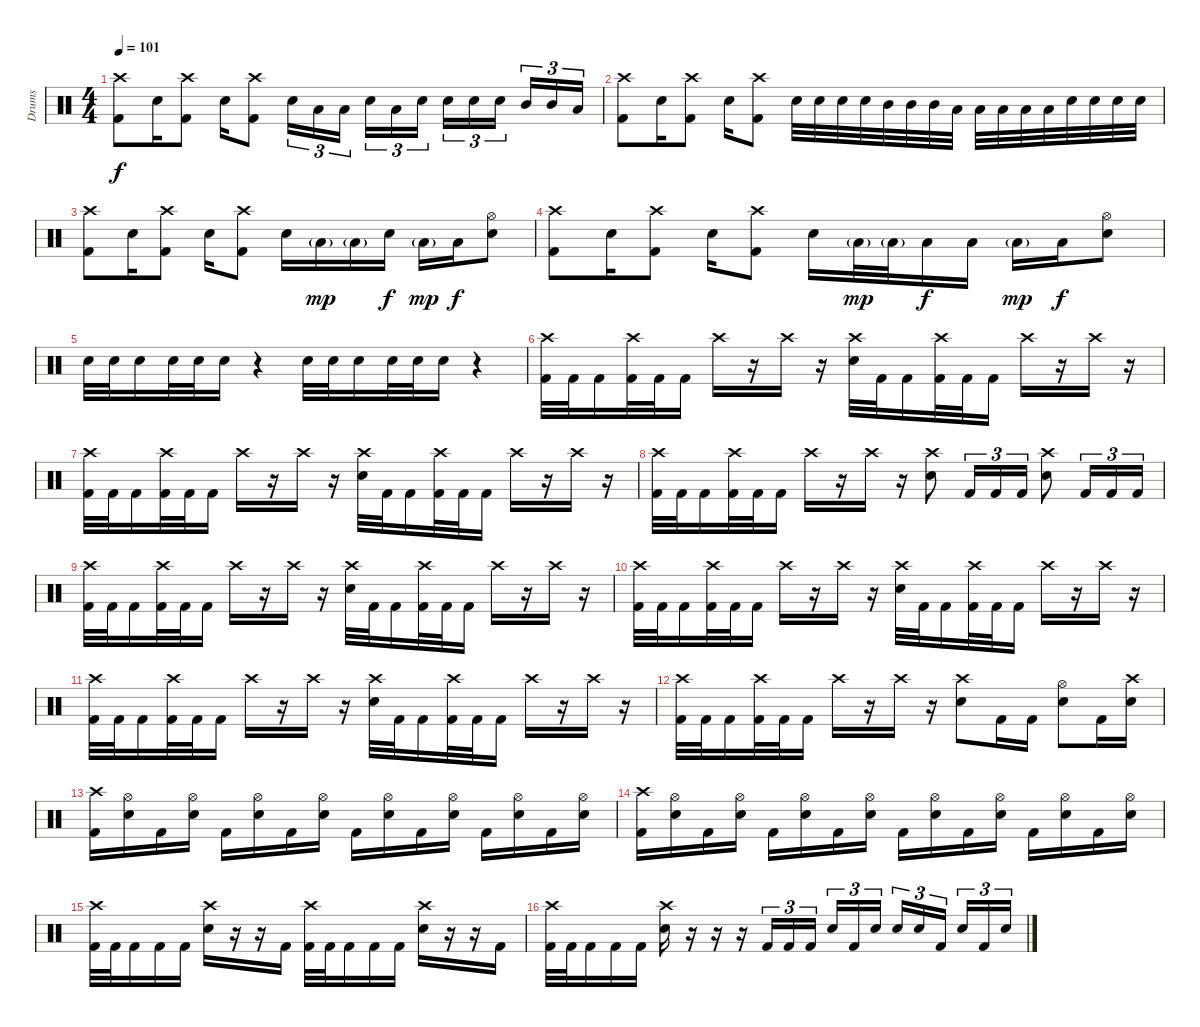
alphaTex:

\track ("Drums" "Drums") {instrument percussion}
\staff {score}
\articulation defaults
\ts (4 4)
\tempo 101
\clef neutral
\ks c
("Crash high (hit)" "Kick (hit) 2").8{dy f} "Electric Snare (hit)".16 ("Crash high (hit)" "Kick (hit) 2").8 "Electric Snare (hit)".16 ("Crash high (hit)" "Kick (hit) 2").8 "Electric Snare (hit)".16{tu (3 2)} "Low Tom (hit)".16{tu (3 2)} "Low Tom (hit)".16{tu (3 2) beam splitsecondary} "Electric Snare (hit)".16{tu (3 2)} "Low Tom (hit)".16{tu (3 2)} "Electric Snare (hit)".16{tu (3 2)} "Electric Snare (hit)".16{tu (3 2)} "Electric Snare (hit)".16{tu (3 2)} "Electric Snare (hit)".16{tu (3 2) beam splitsecondary} "Mid Tom (hit)".16{tu (3 2)} "Mid Tom (hit)".16{tu (3 2)} "Low Tom (hit)".16{tu (3 2)} |
("Crash high (hit)" "Kick (hit) 2").8 "Electric Snare (hit)".16 ("Crash high (hit)" "Kick (hit) 2").8 "Electric Snare (hit)".16 ("Crash high (hit)" "Kick (hit) 2").8 "Electric Snare (hit)".32 "Electric Snare (hit)".32 "Electric Snare (hit)".32 "Electric Snare (hit)".32 "Mid Tom (hit)".32 "Mid Tom (hit)".32 "Mid Tom (hit)".32 "Low Tom (hit)".32 "Low Tom (hit)".32 "Low Tom (hit)".32 "Low Tom (hit)".32 "Low Tom (hit)".32 "Electric Snare (hit)".32 "Electric Snare (hit)".32 "Electric Snare (hit)".32 "Electric Snare (hit)".32 |
("Crash high (hit)" "Kick (hit) 2").8 "Electric Snare (hit)".16 ("Crash high (hit)" "Kick (hit) 2").8 "Electric Snare (hit)".16 ("Crash high (hit)" "Kick (hit) 2").8 "Electric Snare (hit)".16 "Low Tom (hit)"{g}.16{dy mp} "Low Tom (hit)"{g}.16 "Electric Snare (hit)".16{dy f} "Low Tom (hit)"{g}.16{dy mp} "Low Tom (hit)".16{dy f} ("Hi-Hat (open)" "Electric Snare (hit)").8 |
("Crash high (hit)" "Kick (hit) 2").8 "Electric Snare (hit)".16 ("Crash high (hit)" "Kick (hit) 2").8 "Electric Snare (hit)".16 ("Crash high (hit)" "Kick (hit) 2").8 "Electric Snare (hit)".16 "Low Tom (hit)"{g}.32{dy mp} "Low Tom (hit)"{g}.32 "Low Tom (hit)".16{dy f} "Low Tom (hit)".16 "Low Tom (hit)"{g}.16{dy mp} "Low Tom (hit)".16{dy f} ("Hi-Hat (open)" "Electric Snare (hit)").8 |
"Electric Snare (hit)".32 "Electric Snare (hit)".32 "Electric Snare (hit)".16 "Electric Snare (hit)".32 "Electric Snare (hit)".32 "Electric Snare (hit)".16 r.4 "Electric Snare (hit)".32 "Electric Snare (hit)".32 "Electric Snare (hit)".16 "Electric Snare (hit)".32 "Electric Snare (hit)".32 "Electric Snare (hit)".16 r.4 |
("Crash high (hit)" "Kick (hit) 2").32 "Kick (hit) 2".32 "Kick (hit) 2".16 ("Crash high (hit)" "Kick (hit) 2").32 "Kick (hit) 2".32 "Kick (hit) 2".16 "Crash high (hit)".16 r.16 "Crash high (hit)".16 r.16 ("Crash high (hit)" "Electric Snare (hit)").32 "Kick (hit) 2".32 "Kick (hit) 2".16 ("Crash high (hit)" "Kick (hit) 2").32 "Kick (hit) 2".32 "Kick (hit) 2".16 "Crash high (hit)".16 r.16 "Crash high (hit)".16 r.16 |
("Crash high (hit)" "Kick (hit) 2").32 "Kick (hit) 2".32 "Kick (hit) 2".16 ("Crash high (hit)" "Kick (hit) 2").32 "Kick (hit) 2".32 "Kick (hit) 2".16 "Crash high (hit)".16 r.16 "Crash high (hit)".16 r.16 ("Crash high (hit)" "Electric Snare (hit)").32 "Kick (hit) 2".32 "Kick (hit) 2".16 ("Crash high (hit)" "Kick (hit) 2").32 "Kick (hit) 2".32 "Kick (hit) 2".16 "Crash high (hit)".16 r.16 "Crash high (hit)".16 r.16 |
("Crash high (hit)" "Kick (hit) 2").32 "Kick (hit) 2".32 "Kick (hit) 2".16 ("Crash high (hit)" "Kick (hit) 2").32 "Kick (hit) 2".32 "Kick (hit) 2".16 "Crash high (hit)".16 r.16 "Crash high (hit)".16 r.16 ("Crash high (hit)" "Electric Snare (hit)").8 "Kick (hit) 2".16{tu (3 2)} "Kick (hit) 2".16{tu (3 2)} "Kick (hit) 2".16{tu (3 2)} ("Crash high (hit)" "Electric Snare (hit)").8 "Kick (hit) 2".16{tu (3 2)} "Kick (hit) 2".16{tu (3 2)} "Kick (hit) 2".16{tu (3 2)} |
("Crash high (hit)" "Kick (hit) 2").32 "Kick (hit) 2".32 "Kick (hit) 2".16 ("Crash high (hit)" "Kick (hit) 2").32 "Kick (hit) 2".32 "Kick (hit) 2".16 "Crash high (hit)".16 r.16 "Crash high (hit)".16 r.16 ("Crash high (hit)" "Electric Snare (hit)").32 "Kick (hit) 2".32 "Kick (hit) 2".16 ("Crash high (hit)" "Kick (hit) 2").32 "Kick (hit) 2".32 "Kick (hit) 2".16 "Crash high (hit)".16 r.16 "Crash high (hit)".16 r.16 |
("Crash high (hit)" "Kick (hit) 2").32 "Kick (hit) 2".32 "Kick (hit) 2".16 ("Crash high (hit)" "Kick (hit) 2").32 "Kick (hit) 2".32 "Kick (hit) 2".16 "Crash high (hit)".16 r.16 "Crash high (hit)".16 r.16 ("Crash high (hit)" "Electric Snare (hit)").32 "Kick (hit) 2".32 "Kick (hit) 2".16 ("Crash high (hit)" "Kick (hit) 2").32 "Kick (hit) 2".32 "Kick (hit) 2".16 "Crash high (hit)".16 r.16 "Crash high (hit)".16 r.16 |
("Crash high (hit)" "Kick (hit) 2").32 "Kick (hit) 2".32 "Kick (hit) 2".16 ("Crash high (hit)" "Kick (hit) 2").32 "Kick (hit) 2".32 "Kick (hit) 2".16 "Crash high (hit)".16 r.16 "Crash high (hit)".16 r.16 ("Crash high (hit)" "Electric Snare (hit)").32 "Kick (hit) 2".32 "Kick (hit) 2".16 ("Crash high (hit)" "Kick (hit) 2").32 "Kick (hit) 2".32 "Kick (hit) 2".16 "Crash high (hit)".16 r.16 "Crash high (hit)".16 r.16 |
("Crash high (hit)" "Kick (hit) 2").32 "Kick (hit) 2".32 "Kick (hit) 2".16 ("Crash high (hit)" "Kick (hit) 2").32 "Kick (hit) 2".32 "Kick (hit) 2".16 "Crash high (hit)".16 r.16 "Crash high (hit)".16 r.16 ("Crash high (hit)" "Electric Snare (hit)").8 "Kick (hit) 2".16 "Kick (hit) 2".16 ("Hi-Hat (open)" "Electric Snare (hit)").8 "Kick (hit) 2".16 ("Crash high (hit)" "Electric Snare (hit)").16 |
("Crash high (hit)" "Kick (hit) 2").16 ("Hi-Hat (open)" "Electric Snare (hit)").16 "Kick (hit) 2".16 ("Hi-Hat (open)" "Electric Snare (hit)").16 "Kick (hit) 2".16 ("Hi-Hat (open)" "Electric Snare (hit)").16 "Kick (hit) 2".16 ("Hi-Hat (open)" "Electric Snare (hit)").16 "Kick (hit) 2".16 ("Hi-Hat (open)" "Electric Snare (hit)").16 "Kick (hit) 2".16 ("Hi-Hat (open)" "Electric Snare (hit)").16 "Kick (hit) 2".16 ("Hi-Hat (open)" "Electric Snare (hit)").16 "Kick (hit) 2".16 ("Hi-Hat (open)" "Electric Snare (hit)").16 |
("Crash high (hit)" "Kick (hit) 2").16 ("Hi-Hat (open)" "Electric Snare (hit)").16 "Kick (hit) 2".16 ("Hi-Hat (open)" "Electric Snare (hit)").16 "Kick (hit) 2".16 ("Hi-Hat (open)" "Electric Snare (hit)").16 "Kick (hit) 2".16 ("Hi-Hat (open)" "Electric Snare (hit)").16 "Kick (hit) 2".16 ("Hi-Hat (open)" "Electric Snare (hit)").16 "Kick (hit) 2".16 ("Hi-Hat (open)" "Electric Snare (hit)").16 "Kick (hit) 2".16 ("Hi-Hat (open)" "Electric Snare (hit)").16 "Kick (hit) 2".16 ("Hi-Hat (open)" "Electric Snare (hit)").16 |
("Crash high (hit)" "Kick (hit) 2").32 "Kick (hit) 2".32 "Kick (hit) 2".16 "Kick (hit) 2".16 "Kick (hit) 2".16 ("Crash high (hit)" "Electric Snare (hit)").16 r.16 r.16 "Kick (hit) 2".16 ("Crash high (hit)" "Kick (hit) 2").32 "Kick (hit) 2".32 "Kick (hit) 2".16 "Kick (hit) 2".16 "Kick (hit) 2".16 ("Crash high (hit)" "Electric Snare (hit)").16 r.16 r.16 "Kick (hit) 2".16 |
("Crash high (hit)" "Kick (hit) 2").32 "Kick (hit) 2".32 "Kick (hit) 2".16 "Kick (hit) 2".16 "Kick (hit) 2".16 ("Crash high (hit)" "Electric Snare (hit)").16 r.16 r.16 r.16 "Kick (hit) 2".16{tu (3 2)} "Kick (hit) 2".16{tu (3 2)} "Kick (hit) 2".16{tu (3 2) beam splitsecondary} "Electric Snare (hit)".16{tu (3 2)} "Kick (hit) 2".16{tu (3 2)} "Electric Snare (hit)".16{tu (3 2)} "Electric Snare (hit)".16{tu (3 2)} "Electric Snare (hit)".16{tu (3 2)} "Kick (hit) 2".16{tu (3 2) beam splitsecondary} "Electric Snare (hit)".16{tu (3 2)} "Kick (hit) 2".16{tu (3 2)} "Electric Snare (hit)".16{tu (3 2)}
